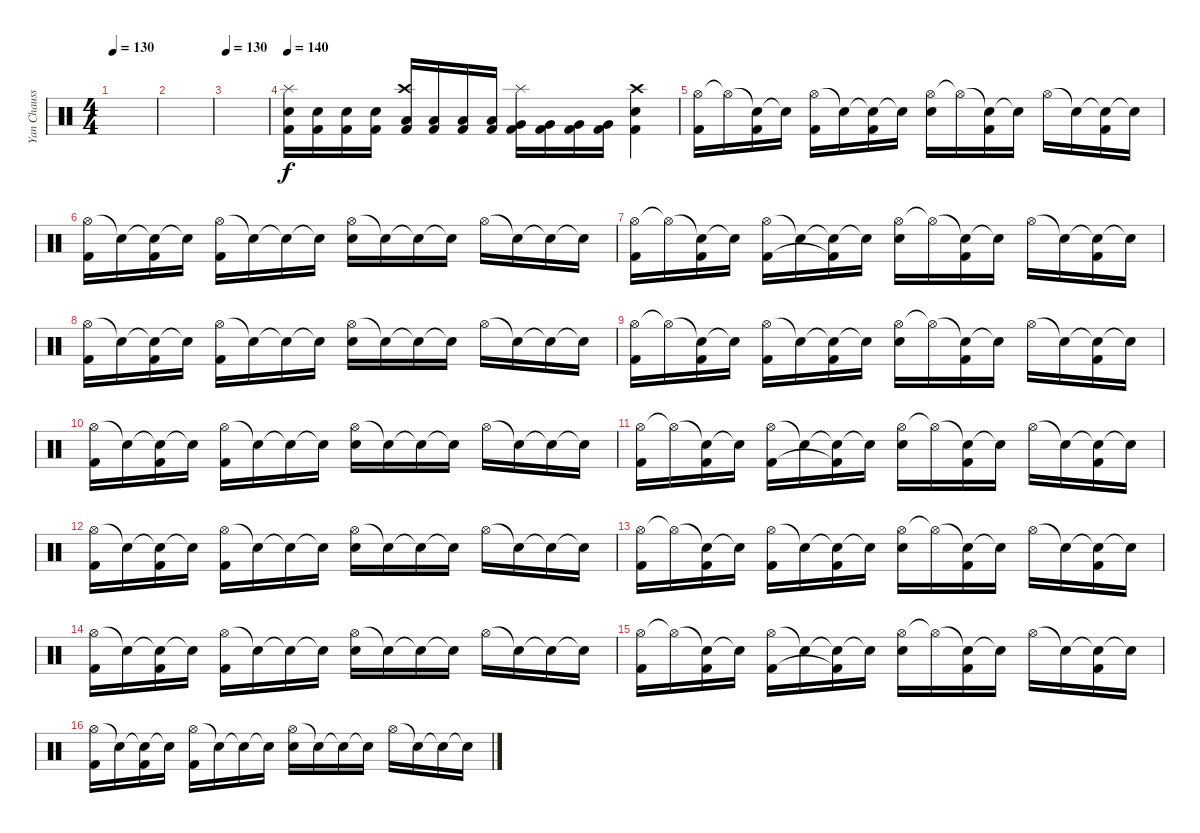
\track ("Yan Chausse" "Yan Chauss") {instrument percussion}
\staff {score}
\articulation defaults
\ts (4 4)
\tempo 130
\clef neutral
\ks c
|
|
\tempo 130
|
\tempo 140
("Splash (hit)" "Snare (hit) 2" "Kick (hit) 2").16 ("Snare (hit) 2" "Kick (hit) 2").16 ("Snare (hit) 2" "Kick (hit) 2").16 ("Snare (hit) 2" "Kick (hit) 2").16 ("Crash high (hit)" "Low Tom (hit)" "Kick (hit) 2").16 ("Low Tom (hit)" "Kick (hit) 2").16 ("Low Tom (hit)" "Kick (hit) 2").16 ("Low Tom (hit)" "Kick (hit) 2").16 ("Splash (hit)" "Very Low Tom (hit)" "Kick (hit) 2").16 ("Very Low Tom (hit)" "Kick (hit) 2").16 ("Very Low Tom (hit)" "Kick (hit) 2").16 ("Very Low Tom (hit)" "Kick (hit) 2").16 ("Crash high (hit)" "Snare (hit) 2" "Kick (hit) 2").4 |
("Hi-Hat (open)" "Kick (hit) 2").16 "Hi-Hat (open)"{t}.16 ("Snare (hit)"{t} "Kick (hit) 2").16 "Snare (hit)"{t}.16 ("Hi-Hat (open)" "Kick (hit) 2").16 "Snare (hit)"{t}.16 ("Snare (hit)"{t} "Kick (hit) 2").16 "Snare (hit)"{t}.16 ("Hi-Hat (open)" "Snare (hit) 2").16 "Hi-Hat (open)"{t}.16 ("Snare (hit)"{t} "Kick (hit) 2").16 "Snare (hit)"{t}.16 "Hi-Hat (open)".16 "Snare (hit)"{t}.16 ("Snare (hit)"{t} "Kick (hit) 2").16 "Snare (hit)"{t}.16 |
("Hi-Hat (open)" "Kick (hit) 2").16 "Snare (hit)"{t}.16 ("Snare (hit)"{t} "Kick (hit) 2").16 "Snare (hit)"{t}.16 ("Hi-Hat (open)" "Kick (hit) 2").16 "Snare (hit)"{t}.16 "Snare (hit)"{t}.16 "Snare (hit)"{t}.16 ("Hi-Hat (open)" "Snare (hit) 2").16 "Snare (hit)"{t}.16 "Snare (hit)"{t}.16 "Snare (hit)"{t}.16 "Hi-Hat (open)".16 "Snare (hit)"{t}.16 "Snare (hit)"{t}.16 "Snare (hit)"{t}.16 |
("Hi-Hat (open)" "Kick (hit) 2").16 "Hi-Hat (open)"{t}.16 ("Snare (hit)"{t} "Kick (hit) 2").16 "Snare (hit)"{t}.16 ("Hi-Hat (open)" "Kick (hit) 2").16 "Snare (hit)"{t}.16 ("Snare (hit)"{t} "Kick (hit) 2"{t}).16 "Snare (hit)"{t}.16 ("Hi-Hat (open)" "Snare (hit) 2").16 "Hi-Hat (open)"{t}.16 ("Snare (hit)"{t} "Kick (hit) 2").16 "Snare (hit)"{t}.16 "Hi-Hat (open)".16 "Snare (hit)"{t}.16 ("Snare (hit)"{t} "Kick (hit) 2").16 "Snare (hit)"{t}.16 |
("Hi-Hat (open)" "Kick (hit) 2").16 "Snare (hit)"{t}.16 ("Snare (hit)"{t} "Kick (hit) 2").16 "Snare (hit)"{t}.16 ("Hi-Hat (open)" "Kick (hit) 2").16 "Snare (hit)"{t}.16 "Snare (hit)"{t}.16 "Snare (hit)"{t}.16 ("Hi-Hat (open)" "Snare (hit) 2").16 "Snare (hit)"{t}.16 "Snare (hit)"{t}.16 "Snare (hit)"{t}.16 "Hi-Hat (open)".16 "Snare (hit)"{t}.16 "Snare (hit)"{t}.16 "Snare (hit)"{t}.16 |
("Hi-Hat (open)" "Kick (hit) 2").16 "Hi-Hat (open)"{t}.16 ("Snare (hit)"{t} "Kick (hit) 2").16 "Snare (hit)"{t}.16 ("Hi-Hat (open)" "Kick (hit) 2").16 "Snare (hit)"{t}.16 ("Snare (hit)"{t} "Kick (hit) 2").16 "Snare (hit)"{t}.16 ("Hi-Hat (open)" "Snare (hit) 2").16 "Hi-Hat (open)"{t}.16 ("Snare (hit)"{t} "Kick (hit) 2").16 "Snare (hit)"{t}.16 "Hi-Hat (open)".16 "Snare (hit)"{t}.16 ("Snare (hit)"{t} "Kick (hit) 2").16 "Snare (hit)"{t}.16 |
("Hi-Hat (open)" "Kick (hit) 2").16 "Snare (hit)"{t}.16 ("Snare (hit)"{t} "Kick (hit) 2").16 "Snare (hit)"{t}.16 ("Hi-Hat (open)" "Kick (hit) 2").16 "Snare (hit)"{t}.16 "Snare (hit)"{t}.16 "Snare (hit)"{t}.16 ("Hi-Hat (open)" "Snare (hit) 2").16 "Snare (hit)"{t}.16 "Snare (hit)"{t}.16 "Snare (hit)"{t}.16 "Hi-Hat (open)".16 "Snare (hit)"{t}.16 "Snare (hit)"{t}.16 "Snare (hit)"{t}.16 |
("Hi-Hat (open)" "Kick (hit) 2").16 "Hi-Hat (open)"{t}.16 ("Snare (hit)"{t} "Kick (hit) 2").16 "Snare (hit)"{t}.16 ("Hi-Hat (open)" "Kick (hit) 2").16 "Snare (hit)"{t}.16 ("Snare (hit)"{t} "Kick (hit) 2"{t}).16 "Snare (hit)"{t}.16 ("Hi-Hat (open)" "Snare (hit) 2").16 "Hi-Hat (open)"{t}.16 ("Snare (hit)"{t} "Kick (hit) 2").16 "Snare (hit)"{t}.16 "Hi-Hat (open)".16 "Snare (hit)"{t}.16 ("Snare (hit)"{t} "Kick (hit) 2").16 "Snare (hit)"{t}.16 |
("Hi-Hat (open)" "Kick (hit) 2").16 "Snare (hit)"{t}.16 ("Snare (hit)"{t} "Kick (hit) 2").16 "Snare (hit)"{t}.16 ("Hi-Hat (open)" "Kick (hit) 2").16 "Snare (hit)"{t}.16 "Snare (hit)"{t}.16 "Snare (hit)"{t}.16 ("Hi-Hat (open)" "Snare (hit) 2").16 "Snare (hit)"{t}.16 "Snare (hit)"{t}.16 "Snare (hit)"{t}.16 "Hi-Hat (open)".16 "Snare (hit)"{t}.16 "Snare (hit)"{t}.16 "Snare (hit)"{t}.16 |
("Hi-Hat (open)" "Kick (hit) 2").16 "Hi-Hat (open)"{t}.16 ("Snare (hit)"{t} "Kick (hit) 2").16 "Snare (hit)"{t}.16 ("Hi-Hat (open)" "Kick (hit) 2").16 "Snare (hit)"{t}.16 ("Snare (hit)"{t} "Kick (hit) 2").16 "Snare (hit)"{t}.16 ("Hi-Hat (open)" "Snare (hit) 2").16 "Hi-Hat (open)"{t}.16 ("Snare (hit)"{t} "Kick (hit) 2").16 "Snare (hit)"{t}.16 "Hi-Hat (open)".16 "Snare (hit)"{t}.16 ("Snare (hit)"{t} "Kick (hit) 2").16 "Snare (hit)"{t}.16 |
("Hi-Hat (open)" "Kick (hit) 2").16 "Snare (hit)"{t}.16 ("Snare (hit)"{t} "Kick (hit) 2").16 "Snare (hit)"{t}.16 ("Hi-Hat (open)" "Kick (hit) 2").16 "Snare (hit)"{t}.16 "Snare (hit)"{t}.16 "Snare (hit)"{t}.16 ("Hi-Hat (open)" "Snare (hit) 2").16 "Snare (hit)"{t}.16 "Snare (hit)"{t}.16 "Snare (hit)"{t}.16 "Hi-Hat (open)".16 "Snare (hit)"{t}.16 "Snare (hit)"{t}.16 "Snare (hit)"{t}.16 |
("Hi-Hat (open)" "Kick (hit) 2").16 "Hi-Hat (open)"{t}.16 ("Snare (hit)"{t} "Kick (hit) 2").16 "Snare (hit)"{t}.16 ("Hi-Hat (open)" "Kick (hit) 2").16 "Snare (hit)"{t}.16 ("Snare (hit)"{t} "Kick (hit) 2"{t}).16 "Snare (hit)"{t}.16 ("Hi-Hat (open)" "Snare (hit) 2").16 "Hi-Hat (open)"{t}.16 ("Snare (hit)"{t} "Kick (hit) 2").16 "Snare (hit)"{t}.16 "Hi-Hat (open)".16 "Snare (hit)"{t}.16 ("Snare (hit)"{t} "Kick (hit) 2").16 "Snare (hit)"{t}.16 |
("Hi-Hat (open)" "Kick (hit) 2").16 "Snare (hit)"{t}.16 ("Snare (hit)"{t} "Kick (hit) 2").16 "Snare (hit)"{t}.16 ("Hi-Hat (open)" "Kick (hit) 2").16 "Snare (hit)"{t}.16 "Snare (hit)"{t}.16 "Snare (hit)"{t}.16 ("Hi-Hat (open)" "Snare (hit) 2").16 "Snare (hit)"{t}.16 "Snare (hit)"{t}.16 "Snare (hit)"{t}.16 "Hi-Hat (open)".16 "Snare (hit)"{t}.16 "Snare (hit)"{t}.16 "Snare (hit)"{t}.16
